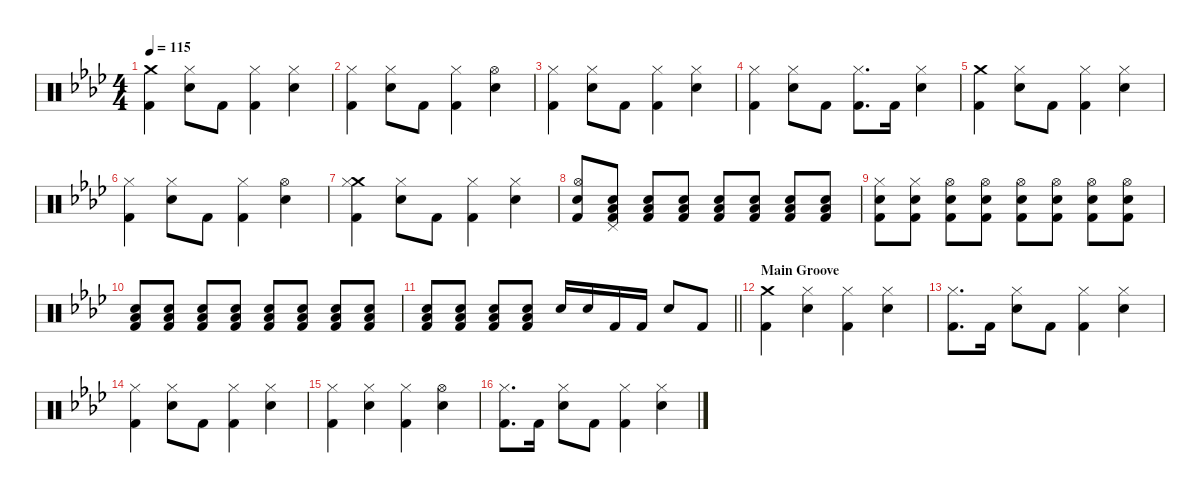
\defaultSystemsLayout 4
\hideDynamics
\bracketExtendMode nobrackets
\singleTrackTrackNamePolicy hidden
\multiTrackTrackNamePolicy hidden
\firstSystemTrackNameMode fullname
\firstSystemTrackNameOrientation horizontal
\otherSystemsTrackNameOrientation horizontal
\track ("Drums" "drm.") {instrument percussion}
\staff {score}
\articulation defaults
\ts (4 4)
\tempo 115
\clef neutral
\ks ab
("Crash medium (hit)"{acc forcenatural} "Kick (hit) 2"{acc forcenatural}).4{dy f beam Down} ("Hi-Hat (closed)"{acc forcenatural} "Snare (hit) 2"{acc forcenatural}).8{beam Down} "Kick (hit) 2"{acc forcenatural}.8{beam Down} ("Hi-Hat (closed)"{acc forcenatural} "Kick (hit) 2"{acc forcenatural}).4{beam Down} ("Hi-Hat (closed)"{acc forcenatural} "Snare (hit) 2"{acc forcenatural}).4{beam Down} |
("Hi-Hat (closed)"{acc forcenatural} "Kick (hit) 2"{acc forcenatural}).4{beam Down} ("Hi-Hat (closed)"{acc forcenatural} "Snare (hit) 2"{acc forcenatural}).8{beam Down} "Kick (hit) 2"{acc forcenatural}.8{beam Down} ("Hi-Hat (closed)"{acc forcenatural} "Kick (hit) 2"{acc forcenatural}).4{beam Down} ("Hi-Hat (open)"{acc forcenatural} "Snare (hit) 2"{acc forcenatural}).4{dy fff beam Down} |
("Hi-Hat (closed)"{acc forcenatural} "Kick (hit) 2"{acc forcenatural}).4{dy f beam Down} ("Hi-Hat (closed)"{acc forcenatural} "Snare (hit) 2"{acc forcenatural}).8{beam Down} "Kick (hit) 2"{acc forcenatural}.8{beam Down} ("Hi-Hat (closed)"{acc forcenatural} "Kick (hit) 2"{acc forcenatural}).4{beam Down} ("Hi-Hat (closed)"{acc forcenatural} "Snare (hit) 2"{acc forcenatural}).4{beam Down} |
("Hi-Hat (closed)"{acc forcenatural} "Kick (hit) 2"{acc forcenatural}).4{beam Down} ("Hi-Hat (closed)"{acc forcenatural} "Snare (hit) 2"{acc forcenatural}).8{beam Down} "Kick (hit) 2"{acc forcenatural}.8{beam Down} ("Hi-Hat (closed)"{acc forcenatural} "Kick (hit) 2"{acc forcenatural}).8{d beam Down} "Kick (hit) 2"{acc forcenatural}.16{beam Down} ("Hi-Hat (closed)"{acc forcenatural} "Snare (hit) 2"{acc forcenatural}).4{beam Down} |
("Crash medium (hit)"{acc forcenatural} "Kick (hit) 2"{acc forcenatural}).4{beam Down} ("Hi-Hat (closed)"{acc forcenatural} "Snare (hit) 2"{acc forcenatural}).8{beam Down} "Kick (hit) 2"{acc forcenatural}.8{beam Down} ("Hi-Hat (closed)"{acc forcenatural} "Kick (hit) 2"{acc forcenatural}).4{beam Down} ("Hi-Hat (closed)"{acc forcenatural} "Snare (hit) 2"{acc forcenatural}).4{beam Down} |
("Hi-Hat (closed)"{acc forcenatural} "Kick (hit) 2"{acc forcenatural}).4{beam Down} ("Hi-Hat (closed)"{acc forcenatural} "Snare (hit) 2"{acc forcenatural}).8{beam Down} "Kick (hit) 2"{acc forcenatural}.8{beam Down} ("Hi-Hat (closed)"{acc forcenatural} "Kick (hit) 2"{acc forcenatural}).4{beam Down} ("Hi-Hat (open)"{acc forcenatural} "Snare (hit) 2"{acc forcenatural}).4{dy fff beam Down} |
("Crash medium (hit)"{acc forcenatural} "Hi-Hat (closed)"{acc forcenatural} "Kick (hit) 2"{acc forcenatural}).4{dy f beam Down} ("Hi-Hat (closed)"{acc forcenatural} "Snare (hit) 2"{acc forcenatural}).8{beam Down} "Kick (hit) 2"{acc forcenatural}.8{beam Down} ("Hi-Hat (closed)"{acc forcenatural} "Kick (hit) 2"{acc forcenatural}).4{beam Down} ("Hi-Hat (closed)"{acc forcenatural} "Snare (hit) 2"{acc forcenatural}).4{dy fff beam Down} |
("Hi-Hat (open)"{acc forcenatural} "Snare (hit) 2"{acc forcenatural} "Kick (hit) 2"{acc forcenatural}).8{dy f beam Up} ("Low Tom (hit)"{acc forcenatural} "Pedal Hi-Hat (hit)"{acc forcenatural} "Snare (hit) 2"{acc forcenatural} "Kick (hit) 2"{acc forcenatural}).8{dy mp beam Up} ("Low Tom (hit)"{acc forcenatural} "Snare (hit) 2"{acc forcenatural} "Kick (hit) 2"{acc forcenatural}).8{beam Up} ("Low Tom (hit)"{acc forcenatural} "Snare (hit) 2"{acc forcenatural} "Kick (hit) 2"{acc forcenatural}).8{beam Up} ("Low Tom (hit)"{acc forcenatural} "Snare (hit) 2"{acc forcenatural} "Kick (hit) 2"{acc forcenatural}).8{beam Up} ("Low Tom (hit)"{acc forcenatural} "Snare (hit) 2"{acc forcenatural} "Kick (hit) 2"{acc forcenatural}).8{beam Up} ("Low Tom (hit)"{acc forcenatural} "Snare (hit) 2"{acc forcenatural} "Kick (hit) 2"{acc forcenatural}).8{beam Up} ("Low Tom (hit)"{acc forcenatural} "Snare (hit) 2"{acc forcenatural} "Kick (hit) 2"{acc forcenatural}).8{beam Up} |
("Hi-Hat (closed)"{acc forcenatural} "Snare (hit) 2"{acc forcenatural} "Kick (hit) 2"{acc forcenatural}).8{beam Down} ("Hi-Hat (closed)"{acc forcenatural} "Snare (hit) 2"{acc forcenatural} "Kick (hit) 2"{acc forcenatural}).8{beam Down} ("Hi-Hat (open)"{acc forcenatural} "Snare (hit) 2"{acc forcenatural} "Kick (hit) 2"{acc forcenatural}).8{beam Down} ("Hi-Hat (open)"{acc forcenatural} "Snare (hit) 2"{acc forcenatural} "Kick (hit) 2"{acc forcenatural}).8{dy f beam Down} ("Hi-Hat (open)"{acc forcenatural} "Snare (hit) 2"{acc forcenatural} "Kick (hit) 2"{acc forcenatural}).8{beam Down} ("Hi-Hat (open)"{acc forcenatural} "Snare (hit) 2"{acc forcenatural} "Kick (hit) 2"{acc forcenatural}).8{beam Down} ("Hi-Hat (open)"{acc forcenatural} "Snare (hit) 2"{acc forcenatural} "Kick (hit) 2"{acc forcenatural}).8{beam Down} ("Hi-Hat (open)"{acc forcenatural} "Snare (hit) 2"{acc forcenatural} "Kick (hit) 2"{acc forcenatural}).8{beam Down} |
("Low Tom (hit)"{acc forcenatural} "Snare (hit) 2"{acc forcenatural} "Kick (hit) 2"{acc forcenatural}).8{dy mf beam Up} ("Low Tom (hit)"{acc forcenatural} "Snare (hit) 2"{acc forcenatural} "Kick (hit) 2"{acc forcenatural}).8{beam Up} ("Low Tom (hit)"{acc forcenatural} "Snare (hit) 2"{acc forcenatural} "Kick (hit) 2"{acc forcenatural}).8{beam Up} ("Low Tom (hit)"{acc forcenatural} "Snare (hit) 2"{acc forcenatural} "Kick (hit) 2"{acc forcenatural}).8{beam Up} ("Low Tom (hit)"{acc forcenatural} "Snare (hit) 2"{acc forcenatural} "Kick (hit) 2"{acc forcenatural}).8{beam Up} ("Low Tom (hit)"{acc forcenatural} "Snare (hit) 2"{acc forcenatural} "Kick (hit) 2"{acc forcenatural}).8{beam Up} ("Low Tom (hit)"{acc forcenatural} "Snare (hit) 2"{acc forcenatural} "Kick (hit) 2"{acc forcenatural}).8{beam Up} ("Low Tom (hit)"{acc forcenatural} "Snare (hit) 2"{acc forcenatural} "Kick (hit) 2"{acc forcenatural}).8{beam Up} |
\barLineRight lightlight
("Low Tom (hit)"{acc forcenatural} "Snare (hit) 2"{acc forcenatural} "Kick (hit) 2"{acc forcenatural}).8{dy f beam Up} ("Low Tom (hit)"{acc forcenatural} "Snare (hit) 2"{acc forcenatural} "Kick (hit) 2"{acc forcenatural}).8{beam Up} ("Low Tom (hit)"{acc forcenatural} "Snare (hit) 2"{acc forcenatural} "Kick (hit) 2"{acc forcenatural}).8{beam Up} ("Low Tom (hit)"{acc forcenatural} "Snare (hit) 2"{acc forcenatural} "Kick (hit) 2"{acc forcenatural}).8{beam Up} "Snare (hit) 2"{acc forcenatural}.16{dy fff beam Up} "Snare (hit) 2"{acc forcenatural}.16{beam Up} "Kick (hit) 2"{acc forcenatural}.16{dy ff beam Up} "Kick (hit) 2"{acc forcenatural}.16{beam Up} "Snare (hit) 2"{acc forcenatural}.8{dy fff beam Up} "Kick (hit) 2"{acc forcenatural}.8{beam Up} |
\section ("" "Main Groove")
("Crash medium (hit)"{acc forcenatural} "Kick (hit) 2"{acc forcenatural}).4{dy f beam Down} ("Hi-Hat (closed)"{acc forcenatural} "Snare (hit) 2"{acc forcenatural}).4{beam Down} ("Hi-Hat (closed)"{acc forcenatural} "Kick (hit) 2"{acc forcenatural}).4{beam Down} ("Hi-Hat (closed)"{acc forcenatural} "Snare (hit) 2"{acc forcenatural}).4{beam Down} |
("Hi-Hat (closed)"{acc forcenatural} "Kick (hit) 2"{acc forcenatural}).8{d beam Down} "Kick (hit) 2"{acc forcenatural}.16{beam Down} ("Hi-Hat (closed)"{acc forcenatural} "Snare (hit) 2"{acc forcenatural}).8{beam Down} "Kick (hit) 2"{acc forcenatural}.8{beam Down} ("Hi-Hat (closed)"{acc forcenatural} "Kick (hit) 2"{acc forcenatural}).4{beam Down} ("Hi-Hat (closed)"{acc forcenatural} "Snare (hit) 2"{acc forcenatural}).4{beam Down} |
("Hi-Hat (closed)"{acc forcenatural} "Kick (hit) 2"{acc forcenatural}).4{beam Down} ("Hi-Hat (closed)"{acc forcenatural} "Snare (hit) 2"{acc forcenatural}).8{beam Down} "Kick (hit) 2"{acc forcenatural}.8{beam Down} ("Hi-Hat (closed)"{acc forcenatural} "Kick (hit) 2"{acc forcenatural}).4{beam Down} ("Hi-Hat (closed)"{acc forcenatural} "Snare (hit) 2"{acc forcenatural}).4{beam Down} |
("Hi-Hat (closed)"{acc forcenatural} "Kick (hit) 2"{acc forcenatural}).4{beam Down} ("Hi-Hat (closed)"{acc forcenatural} "Snare (hit) 2"{acc forcenatural}).4{beam Down} ("Hi-Hat (closed)"{acc forcenatural} "Kick (hit) 2"{acc forcenatural}).4{beam Down} ("Hi-Hat (open)"{acc forcenatural} "Snare (hit) 2"{acc forcenatural}).4{beam Down} |
("Hi-Hat (closed)"{acc forcenatural} "Kick (hit) 2"{acc forcenatural}).8{d beam Down} "Kick (hit) 2"{acc forcenatural}.16{beam Down} ("Hi-Hat (closed)"{acc forcenatural} "Snare (hit) 2"{acc forcenatural}).8{beam Down} "Kick (hit) 2"{acc forcenatural}.8{beam Down} ("Hi-Hat (closed)"{acc forcenatural} "Kick (hit) 2"{acc forcenatural}).4{beam Down} ("Hi-Hat (closed)"{acc forcenatural} "Snare (hit) 2"{acc forcenatural}).4{beam Down}
